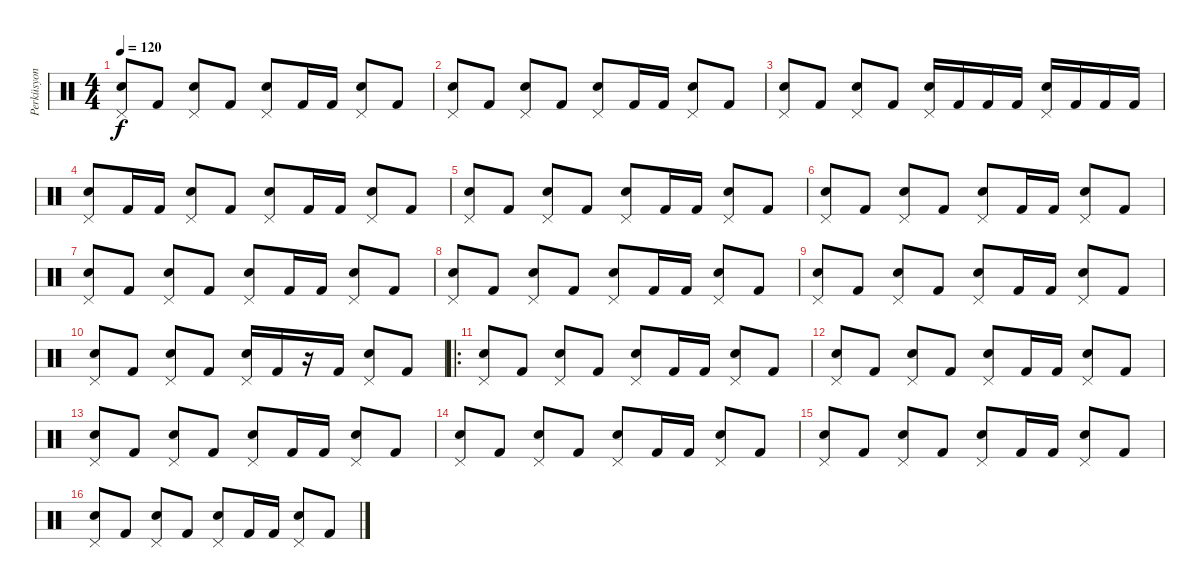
\track ("Perküsyon" "Perküsyon") {instrument percussion}
\staff {score}
\articulation defaults
\ts (4 4)
\tempo 120
\clef neutral
\ks c
("Pedal Hi-Hat (hit)" "Electric Snare (hit)").8{dy f} "Kick (hit) 2".8 ("Pedal Hi-Hat (hit)" "Electric Snare (hit)").8 "Kick (hit) 2".8 ("Pedal Hi-Hat (hit)" "Electric Snare (hit)").8 "Kick (hit) 2".16 "Kick (hit) 2".16 ("Pedal Hi-Hat (hit)" "Electric Snare (hit)").8 "Kick (hit) 2".8 |
("Pedal Hi-Hat (hit)" "Electric Snare (hit)").8 "Kick (hit) 2".8 ("Pedal Hi-Hat (hit)" "Electric Snare (hit)").8 "Kick (hit) 2".8 ("Pedal Hi-Hat (hit)" "Electric Snare (hit)").8 "Kick (hit) 2".16 "Kick (hit) 2".16 ("Pedal Hi-Hat (hit)" "Electric Snare (hit)").8 "Kick (hit) 2".8 |
("Pedal Hi-Hat (hit)" "Electric Snare (hit)").8 "Kick (hit) 2".8 ("Pedal Hi-Hat (hit)" "Electric Snare (hit)").8 "Kick (hit) 2".8 ("Pedal Hi-Hat (hit)" "Electric Snare (hit)").16 "Kick (hit) 2".16 "Kick (hit) 2".16 "Kick (hit) 2".16 ("Pedal Hi-Hat (hit)" "Electric Snare (hit)").16 "Kick (hit) 2".16 "Kick (hit) 2".16 "Kick (hit) 2".16 |
("Pedal Hi-Hat (hit)" "Electric Snare (hit)").8 "Kick (hit) 2".16 "Kick (hit) 2".16 ("Pedal Hi-Hat (hit)" "Electric Snare (hit)").8 "Kick (hit) 2".8 ("Pedal Hi-Hat (hit)" "Electric Snare (hit)").8 "Kick (hit) 2".16 "Kick (hit) 2".16 ("Pedal Hi-Hat (hit)" "Electric Snare (hit)").8 "Kick (hit) 2".8 |
("Pedal Hi-Hat (hit)" "Electric Snare (hit)").8 "Kick (hit) 2".8 ("Pedal Hi-Hat (hit)" "Electric Snare (hit)").8 "Kick (hit) 2".8 ("Pedal Hi-Hat (hit)" "Electric Snare (hit)").8 "Kick (hit) 2".16 "Kick (hit) 2".16 ("Pedal Hi-Hat (hit)" "Electric Snare (hit)").8 "Kick (hit) 2".8 |
("Pedal Hi-Hat (hit)" "Electric Snare (hit)").8 "Kick (hit) 2".8 ("Pedal Hi-Hat (hit)" "Electric Snare (hit)").8 "Kick (hit) 2".8 ("Pedal Hi-Hat (hit)" "Electric Snare (hit)").8 "Kick (hit) 2".16 "Kick (hit) 2".16 ("Pedal Hi-Hat (hit)" "Electric Snare (hit)").8 "Kick (hit) 2".8 |
("Pedal Hi-Hat (hit)" "Electric Snare (hit)").8 "Kick (hit) 2".8 ("Pedal Hi-Hat (hit)" "Electric Snare (hit)").8 "Kick (hit) 2".8 ("Pedal Hi-Hat (hit)" "Electric Snare (hit)").8 "Kick (hit) 2".16 "Kick (hit) 2".16 ("Pedal Hi-Hat (hit)" "Electric Snare (hit)").8 "Kick (hit) 2".8 |
("Pedal Hi-Hat (hit)" "Electric Snare (hit)").8 "Kick (hit) 2".8 ("Pedal Hi-Hat (hit)" "Electric Snare (hit)").8 "Kick (hit) 2".8 ("Pedal Hi-Hat (hit)" "Electric Snare (hit)").8 "Kick (hit) 2".16 "Kick (hit) 2".16 ("Pedal Hi-Hat (hit)" "Electric Snare (hit)").8 "Kick (hit) 2".8 |
("Pedal Hi-Hat (hit)" "Electric Snare (hit)").8 "Kick (hit) 2".8 ("Pedal Hi-Hat (hit)" "Electric Snare (hit)").8 "Kick (hit) 2".8 ("Pedal Hi-Hat (hit)" "Electric Snare (hit)").8 "Kick (hit) 2".16 "Kick (hit) 2".16 ("Pedal Hi-Hat (hit)" "Electric Snare (hit)").8 "Kick (hit) 2".8 |
("Pedal Hi-Hat (hit)" "Electric Snare (hit)").8 "Kick (hit) 2".8 ("Pedal Hi-Hat (hit)" "Electric Snare (hit)").8 "Kick (hit) 2".8 ("Pedal Hi-Hat (hit)" "Electric Snare (hit)").16 "Kick (hit) 2".16 r.16 "Kick (hit) 2".16 ("Pedal Hi-Hat (hit)" "Electric Snare (hit)").8 "Kick (hit) 2".8 |
\ro
("Pedal Hi-Hat (hit)" "Electric Snare (hit)").8 "Kick (hit) 2".8 ("Pedal Hi-Hat (hit)" "Electric Snare (hit)").8 "Kick (hit) 2".8 ("Pedal Hi-Hat (hit)" "Electric Snare (hit)").8 "Kick (hit) 2".16 "Kick (hit) 2".16 ("Pedal Hi-Hat (hit)" "Electric Snare (hit)").8 "Kick (hit) 2".8 |
("Pedal Hi-Hat (hit)" "Electric Snare (hit)").8 "Kick (hit) 2".8 ("Pedal Hi-Hat (hit)" "Electric Snare (hit)").8 "Kick (hit) 2".8 ("Pedal Hi-Hat (hit)" "Electric Snare (hit)").8 "Kick (hit) 2".16 "Kick (hit) 2".16 ("Pedal Hi-Hat (hit)" "Electric Snare (hit)").8 "Kick (hit) 2".8 |
("Pedal Hi-Hat (hit)" "Electric Snare (hit)").8 "Kick (hit) 2".8 ("Pedal Hi-Hat (hit)" "Electric Snare (hit)").8 "Kick (hit) 2".8 ("Pedal Hi-Hat (hit)" "Electric Snare (hit)").8 "Kick (hit) 2".16 "Kick (hit) 2".16 ("Pedal Hi-Hat (hit)" "Electric Snare (hit)").8 "Kick (hit) 2".8 |
("Pedal Hi-Hat (hit)" "Electric Snare (hit)").8 "Kick (hit) 2".8 ("Pedal Hi-Hat (hit)" "Electric Snare (hit)").8 "Kick (hit) 2".8 ("Pedal Hi-Hat (hit)" "Electric Snare (hit)").8 "Kick (hit) 2".16 "Kick (hit) 2".16 ("Pedal Hi-Hat (hit)" "Electric Snare (hit)").8 "Kick (hit) 2".8 |
("Pedal Hi-Hat (hit)" "Electric Snare (hit)").8 "Kick (hit) 2".8 ("Pedal Hi-Hat (hit)" "Electric Snare (hit)").8 "Kick (hit) 2".8 ("Pedal Hi-Hat (hit)" "Electric Snare (hit)").8 "Kick (hit) 2".16 "Kick (hit) 2".16 ("Pedal Hi-Hat (hit)" "Electric Snare (hit)").8 "Kick (hit) 2".8 |
("Pedal Hi-Hat (hit)" "Electric Snare (hit)").8 "Kick (hit) 2".8 ("Pedal Hi-Hat (hit)" "Electric Snare (hit)").8 "Kick (hit) 2".8 ("Pedal Hi-Hat (hit)" "Electric Snare (hit)").8 "Kick (hit) 2".16 "Kick (hit) 2".16 ("Pedal Hi-Hat (hit)" "Electric Snare (hit)").8 "Kick (hit) 2".8
